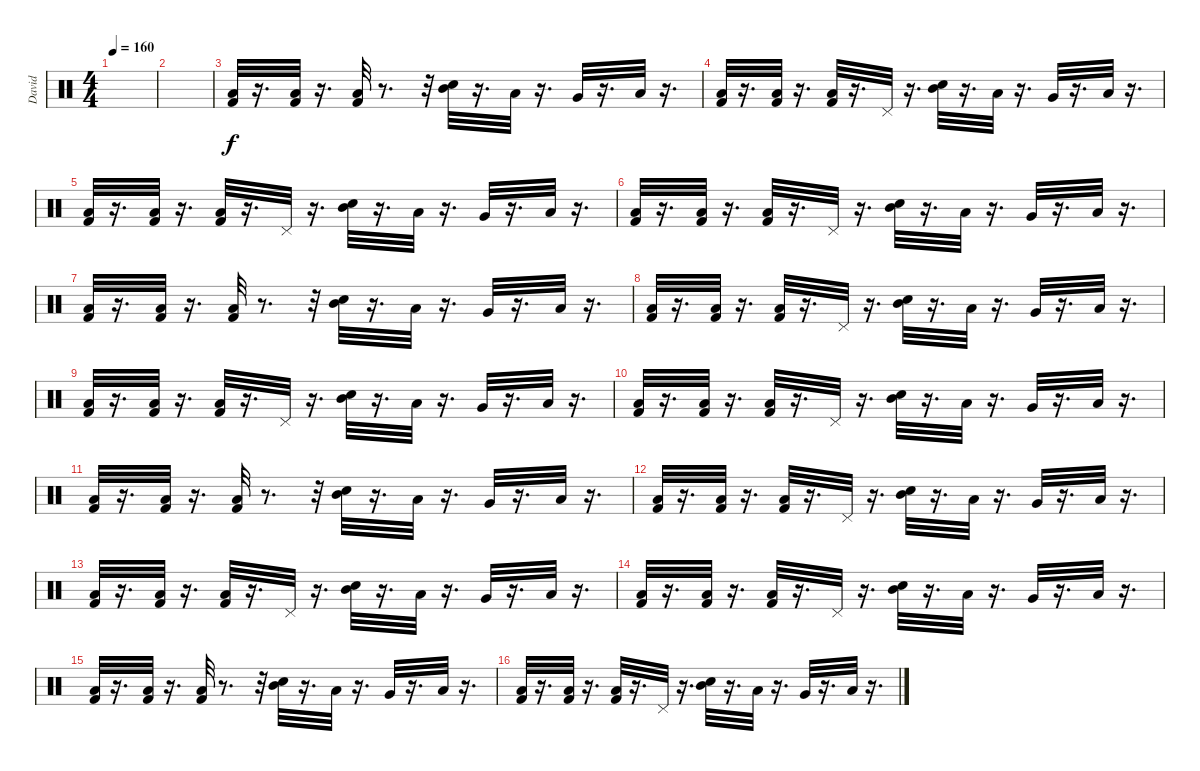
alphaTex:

\track ("David" "David") {instrument percussion}
\staff {score}
\articulation defaults
\ts (4 4)
\tempo 160
\clef neutral
\ks c
|
|
("Kick (hit) 2" "Low Floor Tom (hit)").32 r.16{d} ("Kick (hit) 2" "Low Floor Tom (hit)").32 r.16{d} ("Kick (hit) 2" "Low Floor Tom (hit)").32 r.8{d} r.32 ("Electric Snare (hit)" "Mid Tom (hit)").32 r.16{d} "Low Tom (hit)".32 r.16{d} "Very Low Tom (hit)".32 r.16{d} "Low Floor Tom (hit)".32 r.16{d} |
("Kick (hit) 2" "Low Floor Tom (hit)").32 r.16{d} ("Kick (hit) 2" "Low Floor Tom (hit)").32 r.16{d} ("Kick (hit) 2" "Low Floor Tom (hit)").32 r.16{d} "Pedal Hi-Hat (hit)".32 r.16{d} ("Electric Snare (hit)" "Mid Tom (hit)").32 r.16{d} "Low Tom (hit)".32 r.16{d} "Very Low Tom (hit)".32 r.16{d} "Low Floor Tom (hit)".32 r.16{d} |
("Kick (hit) 2" "Low Floor Tom (hit)").32 r.16{d} ("Kick (hit) 2" "Low Floor Tom (hit)").32 r.16{d} ("Kick (hit) 2" "Low Floor Tom (hit)").32 r.16{d} "Pedal Hi-Hat (hit)".32 r.16{d} ("Electric Snare (hit)" "Mid Tom (hit)").32 r.16{d} "Low Tom (hit)".32 r.16{d} "Very Low Tom (hit)".32 r.16{d} "Low Floor Tom (hit)".32 r.16{d} |
("Kick (hit) 2" "Low Floor Tom (hit)").32 r.16{d} ("Kick (hit) 2" "Low Floor Tom (hit)").32 r.16{d} ("Kick (hit) 2" "Low Floor Tom (hit)").32 r.16{d} "Pedal Hi-Hat (hit)".32 r.16{d} ("Electric Snare (hit)" "Mid Tom (hit)").32 r.16{d} "Low Tom (hit)".32 r.16{d} "Very Low Tom (hit)".32 r.16{d} "Low Floor Tom (hit)".32 r.16{d} |
("Kick (hit) 2" "Low Floor Tom (hit)").32 r.16{d} ("Kick (hit) 2" "Low Floor Tom (hit)").32 r.16{d} ("Kick (hit) 2" "Low Floor Tom (hit)").32 r.8{d} r.32 ("Electric Snare (hit)" "Mid Tom (hit)").32 r.16{d} "Low Tom (hit)".32 r.16{d} "Very Low Tom (hit)".32 r.16{d} "Low Floor Tom (hit)".32 r.16{d} |
("Kick (hit) 2" "Low Floor Tom (hit)").32 r.16{d} ("Kick (hit) 2" "Low Floor Tom (hit)").32 r.16{d} ("Kick (hit) 2" "Low Floor Tom (hit)").32 r.16{d} "Pedal Hi-Hat (hit)".32 r.16{d} ("Electric Snare (hit)" "Mid Tom (hit)").32 r.16{d} "Low Tom (hit)".32 r.16{d} "Very Low Tom (hit)".32 r.16{d} "Low Floor Tom (hit)".32 r.16{d} |
("Kick (hit) 2" "Low Floor Tom (hit)").32 r.16{d} ("Kick (hit) 2" "Low Floor Tom (hit)").32 r.16{d} ("Kick (hit) 2" "Low Floor Tom (hit)").32 r.16{d} "Pedal Hi-Hat (hit)".32 r.16{d} ("Electric Snare (hit)" "Mid Tom (hit)").32 r.16{d} "Low Tom (hit)".32 r.16{d} "Very Low Tom (hit)".32 r.16{d} "Low Floor Tom (hit)".32 r.16{d} |
("Kick (hit) 2" "Low Floor Tom (hit)").32 r.16{d} ("Kick (hit) 2" "Low Floor Tom (hit)").32 r.16{d} ("Kick (hit) 2" "Low Floor Tom (hit)").32 r.16{d} "Pedal Hi-Hat (hit)".32 r.16{d} ("Electric Snare (hit)" "Mid Tom (hit)").32 r.16{d} "Low Tom (hit)".32 r.16{d} "Very Low Tom (hit)".32 r.16{d} "Low Floor Tom (hit)".32 r.16{d} |
("Kick (hit) 2" "Low Floor Tom (hit)").32 r.16{d} ("Kick (hit) 2" "Low Floor Tom (hit)").32 r.16{d} ("Kick (hit) 2" "Low Floor Tom (hit)").32 r.8{d} r.32 ("Electric Snare (hit)" "Mid Tom (hit)").32 r.16{d} "Low Tom (hit)".32 r.16{d} "Very Low Tom (hit)".32 r.16{d} "Low Floor Tom (hit)".32 r.16{d} |
("Kick (hit) 2" "Low Floor Tom (hit)").32 r.16{d} ("Kick (hit) 2" "Low Floor Tom (hit)").32 r.16{d} ("Kick (hit) 2" "Low Floor Tom (hit)").32 r.16{d} "Pedal Hi-Hat (hit)".32 r.16{d} ("Electric Snare (hit)" "Mid Tom (hit)").32 r.16{d} "Low Tom (hit)".32 r.16{d} "Very Low Tom (hit)".32 r.16{d} "Low Floor Tom (hit)".32 r.16{d} |
("Kick (hit) 2" "Low Floor Tom (hit)").32 r.16{d} ("Kick (hit) 2" "Low Floor Tom (hit)").32 r.16{d} ("Kick (hit) 2" "Low Floor Tom (hit)").32 r.16{d} "Pedal Hi-Hat (hit)".32 r.16{d} ("Electric Snare (hit)" "Mid Tom (hit)").32 r.16{d} "Low Tom (hit)".32 r.16{d} "Very Low Tom (hit)".32 r.16{d} "Low Floor Tom (hit)".32 r.16{d} |
("Kick (hit) 2" "Low Floor Tom (hit)").32 r.16{d} ("Kick (hit) 2" "Low Floor Tom (hit)").32 r.16{d} ("Kick (hit) 2" "Low Floor Tom (hit)").32 r.16{d} "Pedal Hi-Hat (hit)".32 r.16{d} ("Electric Snare (hit)" "Mid Tom (hit)").32 r.16{d} "Low Tom (hit)".32 r.16{d} "Very Low Tom (hit)".32 r.16{d} "Low Floor Tom (hit)".32 r.16{d} |
("Kick (hit) 2" "Low Floor Tom (hit)").32 r.16{d} ("Kick (hit) 2" "Low Floor Tom (hit)").32 r.16{d} ("Kick (hit) 2" "Low Floor Tom (hit)").32 r.8{d} r.32 ("Electric Snare (hit)" "Mid Tom (hit)").32 r.16{d} "Low Tom (hit)".32 r.16{d} "Very Low Tom (hit)".32 r.16{d} "Low Floor Tom (hit)".32 r.16{d} |
("Kick (hit) 2" "Low Floor Tom (hit)").32 r.16{d} ("Kick (hit) 2" "Low Floor Tom (hit)").32 r.16{d} ("Kick (hit) 2" "Low Floor Tom (hit)").32 r.16{d} "Pedal Hi-Hat (hit)".32 r.16{d} ("Electric Snare (hit)" "Mid Tom (hit)").32 r.16{d} "Low Tom (hit)".32 r.16{d} "Very Low Tom (hit)".32 r.16{d} "Low Floor Tom (hit)".32 r.16{d}
